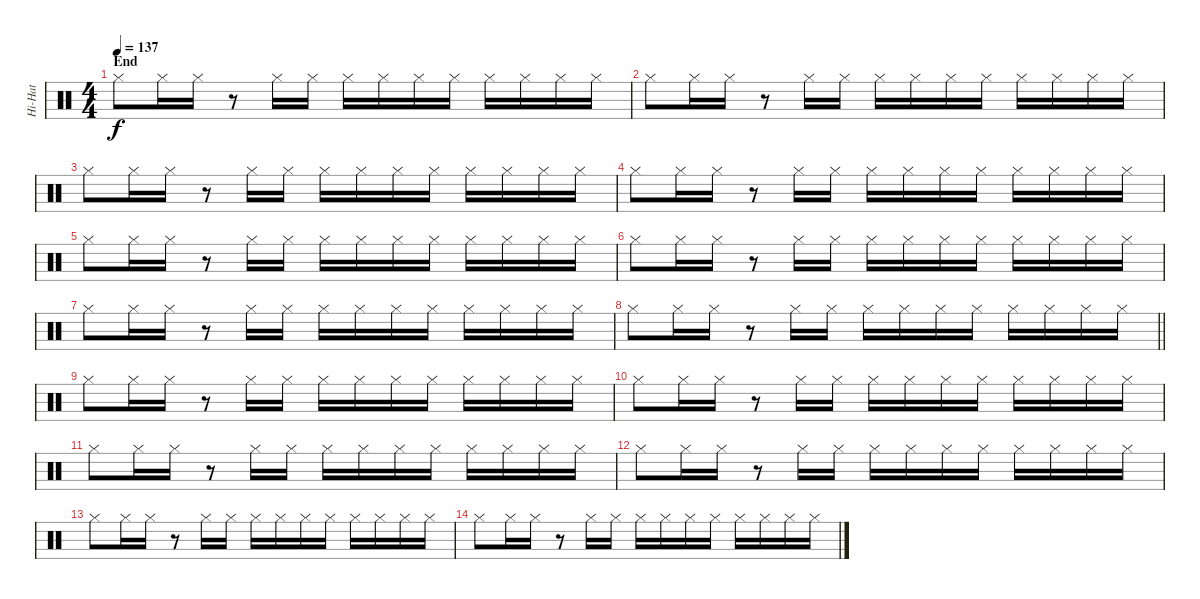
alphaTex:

\track ("Hi-Hat" "Hi-Hat") {instrument percussion}
\staff {score}
\articulation defaults
\ts (4 4)
\section ("" "End")
\tempo 137
\clef neutral
\ks c "Hi-Hat (closed)".8{dy f} "Hi-Hat (closed)".16 "Hi-Hat (closed)".16
r.8 "Hi-Hat (closed)".16 "Hi-Hat (closed)".16 "Hi-Hat (closed)".16 "Hi-Hat (closed)".16 "Hi-Hat (closed)".16 "Hi-Hat (closed)".16 "Hi-Hat (closed)".16 "Hi-Hat (closed)".16 "Hi-Hat (closed)".16 "Hi-Hat (closed)".16 |
"Hi-Hat (closed)".8 "Hi-Hat (closed)".16 "Hi-Hat (closed)".16 r.8 "Hi-Hat (closed)".16 "Hi-Hat (closed)".16 "Hi-Hat (closed)".16 "Hi-Hat (closed)".16 "Hi-Hat (closed)".16 "Hi-Hat (closed)".16 "Hi-Hat (closed)".16 "Hi-Hat (closed)".16 "Hi-Hat (closed)".16 "Hi-Hat (closed)".16 |
"Hi-Hat (closed)".8 "Hi-Hat (closed)".16 "Hi-Hat (closed)".16 r.8 "Hi-Hat (closed)".16 "Hi-Hat (closed)".16 "Hi-Hat (closed)".16 "Hi-Hat (closed)".16 "Hi-Hat (closed)".16 "Hi-Hat (closed)".16 "Hi-Hat (closed)".16 "Hi-Hat (closed)".16 "Hi-Hat (closed)".16 "Hi-Hat (closed)".16 |
"Hi-Hat (closed)".8 "Hi-Hat (closed)".16 "Hi-Hat (closed)".16 r.8 "Hi-Hat (closed)".16 "Hi-Hat (closed)".16 "Hi-Hat (closed)".16 "Hi-Hat (closed)".16 "Hi-Hat (closed)".16 "Hi-Hat (closed)".16 "Hi-Hat (closed)".16 "Hi-Hat (closed)".16 "Hi-Hat (closed)".16 "Hi-Hat (closed)".16 |
"Hi-Hat (closed)".8 "Hi-Hat (closed)".16 "Hi-Hat (closed)".16 r.8 "Hi-Hat (closed)".16 "Hi-Hat (closed)".16 "Hi-Hat (closed)".16 "Hi-Hat (closed)".16 "Hi-Hat (closed)".16 "Hi-Hat (closed)".16 "Hi-Hat (closed)".16 "Hi-Hat (closed)".16 "Hi-Hat (closed)".16 "Hi-Hat (closed)".16 |
"Hi-Hat (closed)".8 "Hi-Hat (closed)".16 "Hi-Hat (closed)".16 r.8 "Hi-Hat (closed)".16 "Hi-Hat (closed)".16 "Hi-Hat (closed)".16 "Hi-Hat (closed)".16 "Hi-Hat (closed)".16 "Hi-Hat (closed)".16 "Hi-Hat (closed)".16 "Hi-Hat (closed)".16 "Hi-Hat (closed)".16 "Hi-Hat (closed)".16 |
"Hi-Hat (closed)".8 "Hi-Hat (closed)".16 "Hi-Hat (closed)".16 r.8 "Hi-Hat (closed)".16 "Hi-Hat (closed)".16 "Hi-Hat (closed)".16 "Hi-Hat (closed)".16 "Hi-Hat (closed)".16 "Hi-Hat (closed)".16 "Hi-Hat (closed)".16 "Hi-Hat (closed)".16 "Hi-Hat (closed)".16 "Hi-Hat (closed)".16 |
\barLineRight lightlight "Hi-Hat (closed)".8 "Hi-Hat (closed)".16 "Hi-Hat (closed)".16
r.8 "Hi-Hat (closed)".16 "Hi-Hat (closed)".16 "Hi-Hat (closed)".16 "Hi-Hat (closed)".16 "Hi-Hat (closed)".16 "Hi-Hat (closed)".16 "Hi-Hat (closed)".16 "Hi-Hat (closed)".16 "Hi-Hat (closed)".16 "Hi-Hat (closed)".16 |
\section ("" "")
"Hi-Hat (closed)".8 "Hi-Hat (closed)".16 "Hi-Hat (closed)".16 r.8 "Hi-Hat (closed)".16 "Hi-Hat (closed)".16 "Hi-Hat (closed)".16 "Hi-Hat (closed)".16 "Hi-Hat (closed)".16 "Hi-Hat (closed)".16 "Hi-Hat (closed)".16 "Hi-Hat (closed)".16 "Hi-Hat (closed)".16 "Hi-Hat (closed)".16 |
"Hi-Hat (closed)".8 "Hi-Hat (closed)".16 "Hi-Hat (closed)".16 r.8 "Hi-Hat (closed)".16 "Hi-Hat (closed)".16 "Hi-Hat (closed)".16 "Hi-Hat (closed)".16 "Hi-Hat (closed)".16 "Hi-Hat (closed)".16 "Hi-Hat (closed)".16 "Hi-Hat (closed)".16 "Hi-Hat (closed)".16 "Hi-Hat (closed)".16 |
"Hi-Hat (closed)".8 "Hi-Hat (closed)".16 "Hi-Hat (closed)".16 r.8 "Hi-Hat (closed)".16 "Hi-Hat (closed)".16 "Hi-Hat (closed)".16 "Hi-Hat (closed)".16 "Hi-Hat (closed)".16 "Hi-Hat (closed)".16 "Hi-Hat (closed)".16 "Hi-Hat (closed)".16 "Hi-Hat (closed)".16 "Hi-Hat (closed)".16 |
"Hi-Hat (closed)".8 "Hi-Hat (closed)".16 "Hi-Hat (closed)".16 r.8 "Hi-Hat (closed)".16 "Hi-Hat (closed)".16 "Hi-Hat (closed)".16 "Hi-Hat (closed)".16 "Hi-Hat (closed)".16 "Hi-Hat (closed)".16 "Hi-Hat (closed)".16 "Hi-Hat (closed)".16 "Hi-Hat (closed)".16 "Hi-Hat (closed)".16 |
"Hi-Hat (closed)".8 "Hi-Hat (closed)".16 "Hi-Hat (closed)".16 r.8 "Hi-Hat (closed)".16 "Hi-Hat (closed)".16 "Hi-Hat (closed)".16 "Hi-Hat (closed)".16 "Hi-Hat (closed)".16 "Hi-Hat (closed)".16 "Hi-Hat (closed)".16 "Hi-Hat (closed)".16 "Hi-Hat (closed)".16 "Hi-Hat (closed)".16 |
"Hi-Hat (closed)".8 "Hi-Hat (closed)".16 "Hi-Hat (closed)".16 r.8 "Hi-Hat (closed)".16 "Hi-Hat (closed)".16 "Hi-Hat (closed)".16 "Hi-Hat (closed)".16 "Hi-Hat (closed)".16 "Hi-Hat (closed)".16 "Hi-Hat (closed)".16 "Hi-Hat (closed)".16 "Hi-Hat (closed)".16 "Hi-Hat (closed)".16
